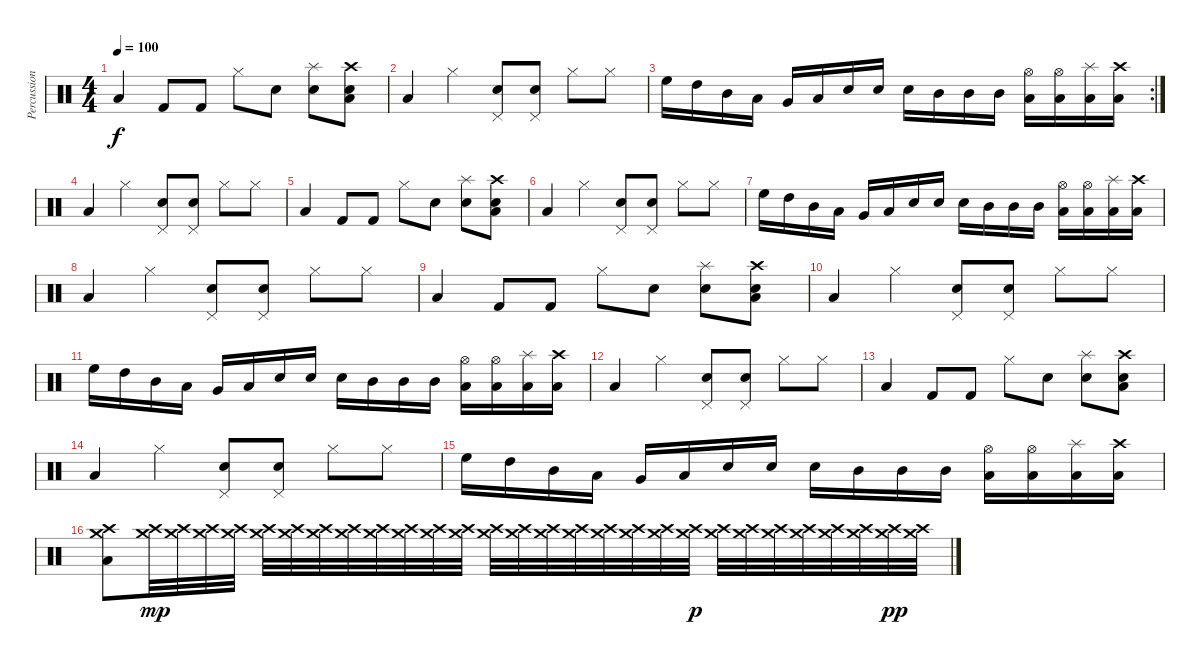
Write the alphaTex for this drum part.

\track ("Percussion" "Percussion") {instrument percussion}
\staff {score}
\articulation defaults
\ts (4 4)
\tempo 100
\clef neutral
\ks c "Low Floor Tom (hit)".4{dy f} "Kick (hit) 2".8 "Kick (hit) 2".8 "Hi-Hat (closed)".8 "Electric Snare (hit)".8
("Splash (hit)" "Snare (hit) 2").8 ("Crash high (hit)" "Low Floor Tom (hit)" "Electric Snare (hit)").8 |
"Low Floor Tom (hit)".4 "Hi-Hat (closed)".4 ("Pedal Hi-Hat (hit)" "Electric Snare (hit)").8 ("Pedal Hi-Hat (hit)" "Electric Snare (hit)").8 "Hi-Hat (closed)".8 "Hi-Hat (closed)".8 |
\rc 2 "High Floor Tom (hit)".16 "High Tom (hit)".16 "Mid Tom (hit)".16 "Low Tom (hit)".16 "Very Low Tom (hit)".16 "Low Floor Tom (hit)".16 "Electric Snare (hit)".16 "Electric Snare (hit)".16 "Electric Snare (hit)".16 "Mid Tom (hit)".16 "Mid Tom (hit)".16 "Mid Tom (hit)".16
("Hi-Hat (open)" "Low Tom (hit)").16 ("Hi-Hat (open)" "Low Tom (hit)").16 ("Splash (hit)" "Low Tom (hit)").16 ("Crash high (hit)" "Low Tom (hit)").16 |
"Low Floor Tom (hit)".4 "Hi-Hat (closed)".4 ("Pedal Hi-Hat (hit)" "Electric Snare (hit)").8 ("Pedal Hi-Hat (hit)" "Electric Snare (hit)").8 "Hi-Hat (closed)".8 "Hi-Hat (closed)".8 |
"Low Floor Tom (hit)".4 "Kick (hit) 2".8 "Kick (hit) 2".8 "Hi-Hat (closed)".8 "Electric Snare (hit)".8 ("Splash (hit)" "Snare (hit) 2").8 ("Crash high (hit)" "Low Floor Tom (hit)" "Electric Snare (hit)").8 |
"Low Floor Tom (hit)".4 "Hi-Hat (closed)".4 ("Pedal Hi-Hat (hit)" "Electric Snare (hit)").8 ("Pedal Hi-Hat (hit)" "Electric Snare (hit)").8 "Hi-Hat (closed)".8 "Hi-Hat (closed)".8 |
"High Floor Tom (hit)".16 "High Tom (hit)".16 "Mid Tom (hit)".16 "Low Tom (hit)".16 "Very Low Tom (hit)".16 "Low Floor Tom (hit)".16 "Electric Snare (hit)".16 "Electric Snare (hit)".16 "Electric Snare (hit)".16 "Mid Tom (hit)".16 "Mid Tom (hit)".16 "Mid Tom (hit)".16 ("Hi-Hat (open)" "Low Tom (hit)").16 ("Hi-Hat (open)" "Low Tom (hit)").16 ("Splash (hit)" "Low Tom (hit)").16 ("Crash high (hit)" "Low Tom (hit)").16 |
"Low Floor Tom (hit)".4 "Hi-Hat (closed)".4 ("Pedal Hi-Hat (hit)" "Electric Snare (hit)").8 ("Pedal Hi-Hat (hit)" "Electric Snare (hit)").8 "Hi-Hat (closed)".8 "Hi-Hat (closed)".8 |
"Low Floor Tom (hit)".4 "Kick (hit) 2".8 "Kick (hit) 2".8 "Hi-Hat (closed)".8 "Electric Snare (hit)".8 ("Splash (hit)" "Snare (hit) 2").8 ("Crash high (hit)" "Low Floor Tom (hit)" "Electric Snare (hit)").8 |
"Low Floor Tom (hit)".4 "Hi-Hat (closed)".4 ("Pedal Hi-Hat (hit)" "Electric Snare (hit)").8 ("Pedal Hi-Hat (hit)" "Electric Snare (hit)").8 "Hi-Hat (closed)".8 "Hi-Hat (closed)".8 |
"High Floor Tom (hit)".16 "High Tom (hit)".16 "Mid Tom (hit)".16 "Low Tom (hit)".16 "Very Low Tom (hit)".16 "Low Floor Tom (hit)".16 "Electric Snare (hit)".16 "Electric Snare (hit)".16 "Electric Snare (hit)".16 "Mid Tom (hit)".16 "Mid Tom (hit)".16 "Mid Tom (hit)".16 ("Hi-Hat (open)" "Low Tom (hit)").16 ("Hi-Hat (open)" "Low Tom (hit)").16 ("Splash (hit)" "Low Tom (hit)").16 ("Crash high (hit)" "Low Tom (hit)").16 |
"Low Floor Tom (hit)".4 "Hi-Hat (closed)".4 ("Pedal Hi-Hat (hit)" "Electric Snare (hit)").8 ("Pedal Hi-Hat (hit)" "Electric Snare (hit)").8 "Hi-Hat (closed)".8 "Hi-Hat (closed)".8 |
"Low Floor Tom (hit)".4 "Kick (hit) 2".8 "Kick (hit) 2".8 "Hi-Hat (closed)".8 "Electric Snare (hit)".8 ("Splash (hit)" "Snare (hit) 2").8 ("Crash high (hit)" "Low Floor Tom (hit)" "Electric Snare (hit)").8 |
"Low Floor Tom (hit)".4 "Hi-Hat (closed)".4 ("Pedal Hi-Hat (hit)" "Electric Snare (hit)").8 ("Pedal Hi-Hat (hit)" "Electric Snare (hit)").8 "Hi-Hat (closed)".8 "Hi-Hat (closed)".8 |
"High Floor Tom (hit)".16 "High Tom (hit)".16 "Mid Tom (hit)".16 "Low Tom (hit)".16 "Very Low Tom (hit)".16 "Low Floor Tom (hit)".16 "Electric Snare (hit)".16 "Electric Snare (hit)".16 "Electric Snare (hit)".16 "Mid Tom (hit)".16 "Mid Tom (hit)".16 "Mid Tom (hit)".16 ("Hi-Hat (open)" "Low Tom (hit)").16 ("Hi-Hat (open)" "Low Tom (hit)").16 ("Splash (hit)" "Low Tom (hit)").16 ("Crash high (hit)" "Low Tom (hit)").16 |
("Crash high (hit)" "Crash medium (hit)" "Low Tom (hit)").8 ("Crash high (hit)" "Crash medium (hit)").32{dy mp} ("Crash high (hit)" "Crash medium (hit)").32 ("Crash high (hit)" "Crash medium (hit)").32 ("Crash high (hit)" "Crash medium (hit)").32 ("Crash high (hit)" "Crash medium (hit)").32 ("Crash high (hit)" "Crash medium (hit)").32 ("Crash high (hit)" "Crash medium (hit)").32 ("Crash high (hit)" "Crash medium (hit)").32 ("Crash high (hit)" "Crash medium (hit)").32 ("Crash high (hit)" "Crash medium (hit)").32 ("Crash high (hit)" "Crash medium (hit)").32 ("Crash high (hit)" "Crash medium (hit)").32 ("Crash high (hit)" "Crash medium (hit)").32 ("Crash high (hit)" "Crash medium (hit)").32 ("Crash high (hit)" "Crash medium (hit)").32 ("Crash high (hit)" "Crash medium (hit)").32 ("Crash high (hit)" "Crash medium (hit)").32 ("Crash high (hit)" "Crash medium (hit)").32 ("Crash high (hit)" "Crash medium (hit)").32 ("Crash high (hit)" "Crash medium (hit)").32{dy p} ("Crash high (hit)" "Crash medium (hit)").32 ("Crash high (hit)" "Crash medium (hit)").32 ("Crash high (hit)" "Crash medium (hit)").32 ("Crash high (hit)" "Crash medium (hit)").32 ("Crash high (hit)" "Crash medium (hit)").32 ("Crash high (hit)" "Crash medium (hit)").32 ("Crash high (hit)" "Crash medium (hit)").32{dy pp} ("Crash high (hit)" "Crash medium (hit)").32
